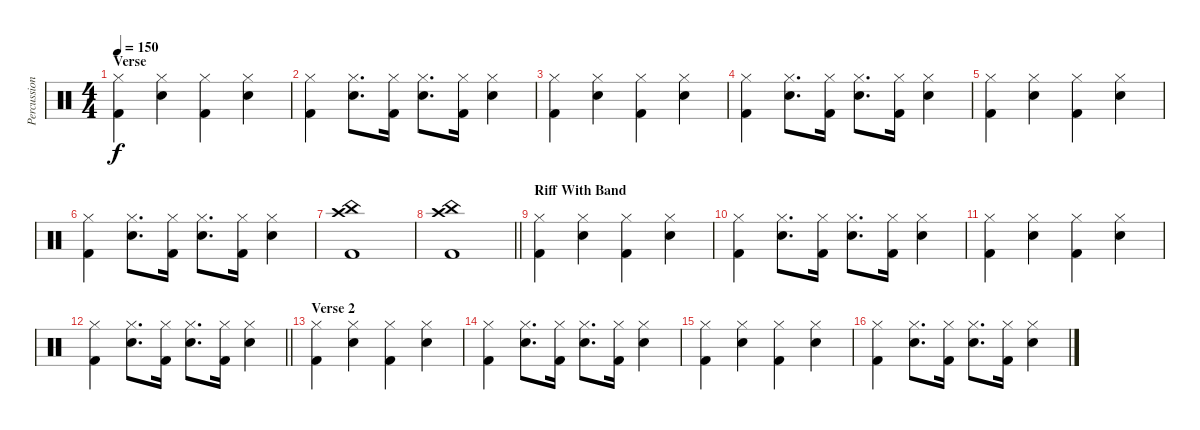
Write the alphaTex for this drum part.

\track ("Percussion" "Percussion") {instrument percussion}
\staff {score}
\articulation defaults
\ts (4 4)
\section ("" "Verse")
\tempo 150
\clef neutral
\ks c
("Kick (hit) 2" "Hi-Hat (closed)").4{dy f} ("Snare (hit) 2" "Hi-Hat (closed)").4 ("Kick (hit) 2" "Hi-Hat (closed)").4 ("Snare (hit) 2" "Hi-Hat (closed)").4 |
("Kick (hit) 2" "Hi-Hat (closed)").4 ("Snare (hit) 2" "Hi-Hat (closed)").8{d} ("Kick (hit) 2" "Hi-Hat (closed)").16 ("Snare (hit) 2" "Hi-Hat (closed)").8{d} ("Kick (hit) 2" "Hi-Hat (closed)").16 ("Snare (hit) 2" "Hi-Hat (closed)").4 |
("Kick (hit) 2" "Hi-Hat (closed)").4 ("Snare (hit) 2" "Hi-Hat (closed)").4 ("Kick (hit) 2" "Hi-Hat (closed)").4 ("Snare (hit) 2" "Hi-Hat (closed)").4 |
("Kick (hit) 2" "Hi-Hat (closed)").4 ("Snare (hit) 2" "Hi-Hat (closed)").8{d} ("Kick (hit) 2" "Hi-Hat (closed)").16 ("Snare (hit) 2" "Hi-Hat (closed)").8{d} ("Kick (hit) 2" "Hi-Hat (closed)").16 ("Snare (hit) 2" "Hi-Hat (closed)").4 |
("Kick (hit) 2" "Hi-Hat (closed)").4 ("Snare (hit) 2" "Hi-Hat (closed)").4 ("Kick (hit) 2" "Hi-Hat (closed)").4 ("Snare (hit) 2" "Hi-Hat (closed)").4 |
("Kick (hit) 2" "Hi-Hat (closed)").4 ("Snare (hit) 2" "Hi-Hat (closed)").8{d} ("Kick (hit) 2" "Hi-Hat (closed)").16 ("Snare (hit) 2" "Hi-Hat (closed)").8{d} ("Kick (hit) 2" "Hi-Hat (closed)").16 ("Snare (hit) 2" "Hi-Hat (closed)").4 |
("China (hit)" "Kick (hit) 2" "Crash high (hit)").1 |
\barLineRight lightlight
("China (hit)" "Kick (hit) 2" "Crash high (hit)").1 |
\section ("" "Riff With Band")
("Kick (hit) 2" "Hi-Hat (closed)").4 ("Snare (hit) 2" "Hi-Hat (closed)").4 ("Kick (hit) 2" "Hi-Hat (closed)").4 ("Snare (hit) 2" "Hi-Hat (closed)").4 |
("Kick (hit) 2" "Hi-Hat (closed)").4 ("Snare (hit) 2" "Hi-Hat (closed)").8{d} ("Kick (hit) 2" "Hi-Hat (closed)").16 ("Snare (hit) 2" "Hi-Hat (closed)").8{d} ("Kick (hit) 2" "Hi-Hat (closed)").16 ("Snare (hit) 2" "Hi-Hat (closed)").4 |
("Kick (hit) 2" "Hi-Hat (closed)").4 ("Snare (hit) 2" "Hi-Hat (closed)").4 ("Kick (hit) 2" "Hi-Hat (closed)").4 ("Snare (hit) 2" "Hi-Hat (closed)").4 |
\barLineRight lightlight
("Kick (hit) 2" "Hi-Hat (closed)").4 ("Snare (hit) 2" "Hi-Hat (closed)").8{d} ("Kick (hit) 2" "Hi-Hat (closed)").16 ("Snare (hit) 2" "Hi-Hat (closed)").8{d} ("Kick (hit) 2" "Hi-Hat (closed)").16 ("Snare (hit) 2" "Hi-Hat (closed)").4 |
\section ("" "Verse 2")
("Kick (hit) 2" "Hi-Hat (closed)").4 ("Snare (hit) 2" "Hi-Hat (closed)").4 ("Kick (hit) 2" "Hi-Hat (closed)").4 ("Snare (hit) 2" "Hi-Hat (closed)").4 |
("Kick (hit) 2" "Hi-Hat (closed)").4 ("Snare (hit) 2" "Hi-Hat (closed)").8{d} ("Kick (hit) 2" "Hi-Hat (closed)").16 ("Snare (hit) 2" "Hi-Hat (closed)").8{d} ("Kick (hit) 2" "Hi-Hat (closed)").16 ("Snare (hit) 2" "Hi-Hat (closed)").4 |
("Kick (hit) 2" "Hi-Hat (closed)").4 ("Snare (hit) 2" "Hi-Hat (closed)").4 ("Kick (hit) 2" "Hi-Hat (closed)").4 ("Snare (hit) 2" "Hi-Hat (closed)").4 |
("Kick (hit) 2" "Hi-Hat (closed)").4 ("Snare (hit) 2" "Hi-Hat (closed)").8{d} ("Kick (hit) 2" "Hi-Hat (closed)").16 ("Snare (hit) 2" "Hi-Hat (closed)").8{d} ("Kick (hit) 2" "Hi-Hat (closed)").16 ("Snare (hit) 2" "Hi-Hat (closed)").4
